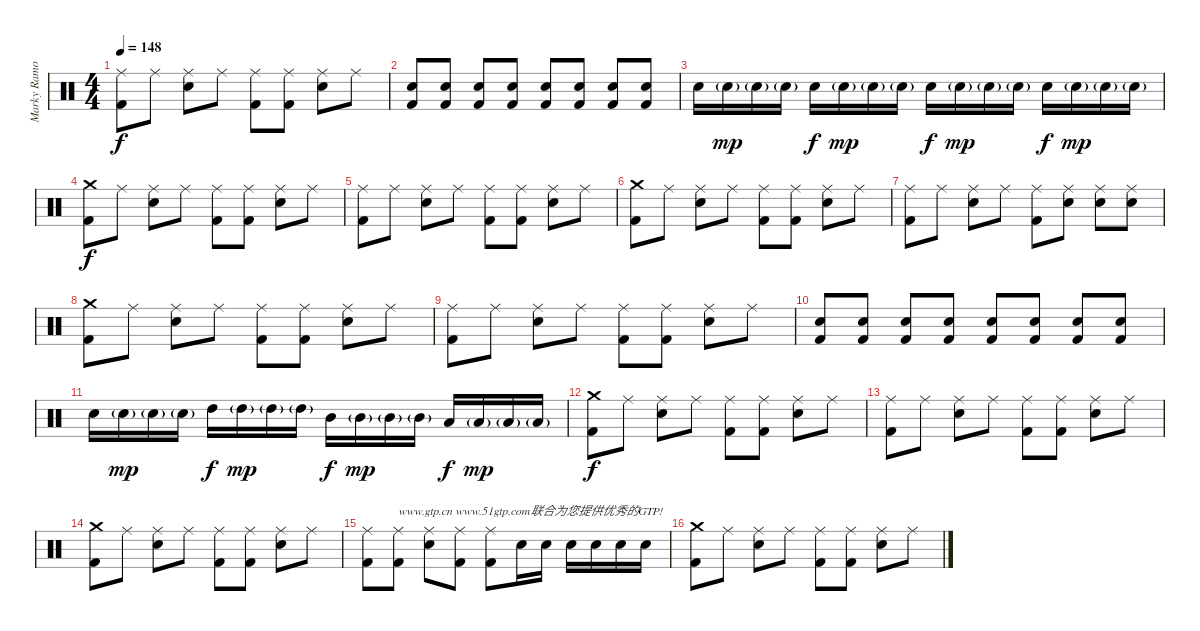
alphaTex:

\track ("Marky Ramone" "Marky Ramo") {instrument percussion}
\staff {score}
\articulation defaults
\ts (4 4)
\tempo 148
\clef neutral
\ks c
("Ride (middle)" "Kick (hit) 2").8{dy f} "Ride (middle)".8 ("Ride (middle)" "Electric Snare (hit)").8 "Ride (middle)".8 ("Ride (middle)" "Kick (hit) 2").8 ("Ride (middle)" "Kick (hit) 2").8 ("Ride (middle)" "Electric Snare (hit)").8 "Ride (middle)".8 |
("Electric Snare (hit)" "Kick (hit) 2").8{bd 240} ("Electric Snare (hit)" "Kick (hit) 2").8{bd 240} ("Electric Snare (hit)" "Kick (hit) 2").8{bd 240} ("Electric Snare (hit)" "Kick (hit) 2").8{bd 240} ("Electric Snare (hit)" "Kick (hit) 2").8{bd 240} ("Electric Snare (hit)" "Kick (hit) 2").8{bd 240} ("Electric Snare (hit)" "Kick (hit) 2").8{bd 240} ("Electric Snare (hit)" "Kick (hit) 2").8{bd 240} |
"Electric Snare (hit)".16 "Electric Snare (hit)"{g}.16{dy mp} "Electric Snare (hit)"{g}.16 "Electric Snare (hit)"{g}.16 "Electric Snare (hit)".16{dy f} "Electric Snare (hit)"{g}.16{dy mp} "Electric Snare (hit)"{g}.16 "Electric Snare (hit)"{g}.16 "Electric Snare (hit)".16{dy f} "Electric Snare (hit)"{g}.16{dy mp} "Electric Snare (hit)"{g}.16 "Electric Snare (hit)"{g}.16 "Electric Snare (hit)".16{dy f} "Electric Snare (hit)"{g}.16{dy mp} "Electric Snare (hit)"{g}.16 "Electric Snare (hit)"{g}.16 |
("Crash medium (hit)" "Kick (hit) 2").8{dy f} "Ride (middle)".8 ("Ride (middle)" "Electric Snare (hit)").8 "Ride (middle)".8 ("Ride (middle)" "Kick (hit) 2").8 ("Ride (middle)" "Kick (hit) 2").8 ("Ride (middle)" "Electric Snare (hit)").8 "Ride (middle)".8 |
("Ride (middle)" "Kick (hit) 2").8 "Ride (middle)".8 ("Ride (middle)" "Electric Snare (hit)").8 "Ride (middle)".8 ("Ride (middle)" "Kick (hit) 2").8 ("Ride (middle)" "Kick (hit) 2").8 ("Ride (middle)" "Electric Snare (hit)").8 "Ride (middle)".8 |
("Crash medium (hit)" "Kick (hit) 2").8 "Ride (middle)".8 ("Ride (middle)" "Electric Snare (hit)").8 "Ride (middle)".8 ("Ride (middle)" "Kick (hit) 2").8 ("Ride (middle)" "Kick (hit) 2").8 ("Ride (middle)" "Electric Snare (hit)").8 "Ride (middle)".8 |
("Ride (middle)" "Kick (hit) 2").8 "Ride (middle)".8 ("Ride (middle)" "Electric Snare (hit)").8 "Ride (middle)".8 ("Ride (middle)" "Kick (hit) 2").8 ("Ride (middle)" "Electric Snare (hit)").8 ("Ride (middle)" "Electric Snare (hit)").8 ("Ride (middle)" "Electric Snare (hit)").8 |
("Crash medium (hit)" "Kick (hit) 2").8 "Ride (middle)".8 ("Ride (middle)" "Electric Snare (hit)").8 "Ride (middle)".8 ("Ride (middle)" "Kick (hit) 2").8 ("Ride (middle)" "Kick (hit) 2").8 ("Ride (middle)" "Electric Snare (hit)").8 "Ride (middle)".8 |
("Ride (middle)" "Kick (hit) 2").8 "Ride (middle)".8 ("Ride (middle)" "Electric Snare (hit)").8 "Ride (middle)".8 ("Ride (middle)" "Kick (hit) 2").8 ("Ride (middle)" "Kick (hit) 2").8 ("Ride (middle)" "Electric Snare (hit)").8 "Ride (middle)".8 |
("Electric Snare (hit)" "Kick (hit) 2").8 ("Electric Snare (hit)" "Kick (hit) 2").8 ("Electric Snare (hit)" "Kick (hit) 2").8 ("Electric Snare (hit)" "Kick (hit) 2").8 ("Electric Snare (hit)" "Kick (hit) 2").8 ("Electric Snare (hit)" "Kick (hit) 2").8 ("Electric Snare (hit)" "Kick (hit) 2").8 ("Electric Snare (hit)" "Kick (hit) 2").8 |
"Electric Snare (hit)".16 "Electric Snare (hit)"{g}.16{dy mp} "Electric Snare (hit)"{g}.16 "Electric Snare (hit)"{g}.16 "High Tom (hit)".16{dy f} "High Tom (hit)"{g}.16{dy mp} "High Tom (hit)"{g}.16 "High Tom (hit)"{g}.16 "Mid Tom (hit)".16{dy f} "Mid Tom (hit)"{g}.16{dy mp} "Mid Tom (hit)"{g}.16 "Mid Tom (hit)"{g}.16 "Low Tom (hit)".16{dy f} "Low Tom (hit)"{g}.16{dy mp} "Low Tom (hit)"{g}.16 "Low Tom (hit)"{g}.16 |
("Crash medium (hit)" "Kick (hit) 2").8{dy f} "Ride (middle)".8 ("Ride (middle)" "Electric Snare (hit)").8 "Ride (middle)".8 ("Ride (middle)" "Kick (hit) 2").8 ("Ride (middle)" "Kick (hit) 2").8 ("Ride (middle)" "Electric Snare (hit)").8 "Ride (middle)".8 |
("Ride (middle)" "Kick (hit) 2").8 "Ride (middle)".8 ("Ride (middle)" "Electric Snare (hit)").8 "Ride (middle)".8 ("Ride (middle)" "Kick (hit) 2").8 ("Ride (middle)" "Kick (hit) 2").8 ("Ride (middle)" "Electric Snare (hit)").8 "Ride (middle)".8 |
("Crash medium (hit)" "Kick (hit) 2").8 "Ride (middle)".8 ("Ride (middle)" "Electric Snare (hit)").8 "Ride (middle)".8 ("Ride (middle)" "Kick (hit) 2").8 ("Ride (middle)" "Kick (hit) 2").8 ("Ride (middle)" "Electric Snare (hit)").8 "Ride (middle)".8 |
("Ride (middle)" "Kick (hit) 2").8 ("Ride (middle)" "Kick (hit) 2").8{txt "www.gtp.cn www.51gtp.com联合为您提供优秀的GTP!"} ("Ride (middle)" "Electric Snare (hit)").8 ("Ride (middle)" "Kick (hit) 2").8 ("Ride (middle)" "Kick (hit) 2").8 "Electric Snare (hit)".16 "Electric Snare (hit)".16 "Electric Snare (hit)".16 "Electric Snare (hit)".16 "Electric Snare (hit)".16 "Electric Snare (hit)".16 |
("Crash medium (hit)" "Kick (hit) 2").8 "Ride (middle)".8 ("Ride (middle)" "Electric Snare (hit)").8 "Ride (middle)".8 ("Ride (middle)" "Kick (hit) 2").8 ("Ride (middle)" "Kick (hit) 2").8 ("Ride (middle)" "Electric Snare (hit)").8 "Ride (middle)".8
